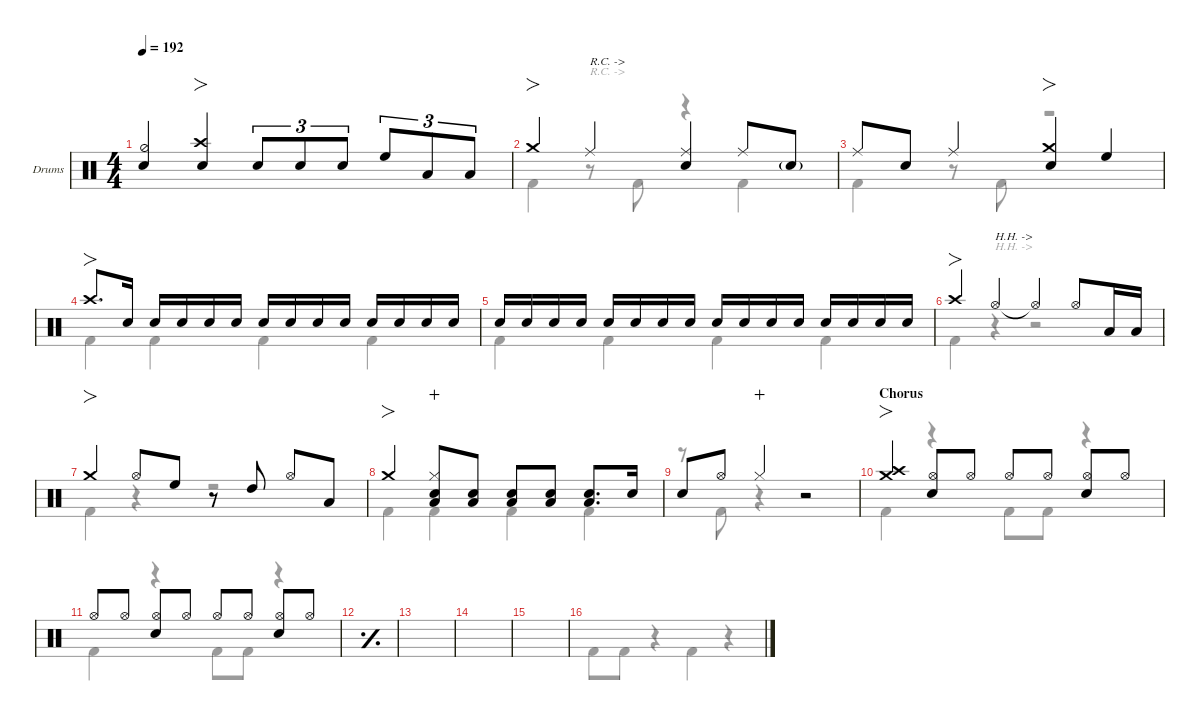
\defaultSystemsLayout 4
\hideDynamics
\bracketExtendMode nobrackets
\firstSystemTrackNameOrientation horizontal
\track ("Drums" "Drums") {defaultSystemsLayout 4 instrument percussion}
\staff {score}
\articulation defaults
\voice
\ts (4 4)
\tempo 192
\clef neutral
\scale
0.244461
\ks c
("Hi-Hat (half)" "Snare (hit) 2").4{dy f beam Up} ("Snare (hit) 2" "Crash high (hit)").4{fo beam Up} "Snare (hit) 2".8{tu (3 2) beam Up} "Snare (hit) 2".8{tu (3 2) dy mf beam Up} "Snare (hit) 2".8{tu (3 2) beam Up} "High Floor Tom (hit)".8{tu (3 2) dy f beam Up} "Low Tom (hit)".8{tu (3 2) beam Up} "Low Tom (hit)".8{tu (3 2) beam Up} |
\scale
0.244461 "Crash medium (hit)".4{fo beam Up} "Ride (middle)".4{txt "R.C. ->" beam Up} ("Snare (hit) 2" "Ride (middle)").4{beam Up} "Ride (middle)".8{beam Up} "Snare (hit) 2"{g}.8{dy mf beam Up} |
\scale
0.244461 "Ride (middle)".8{dy f beam Up} "Snare (hit) 2".8{beam Up} "Ride (middle)".4{beam Up} ("Crash medium (hit)" "Snare (hit) 2").4{fo beam Up} "High Floor Tom (hit)".4{beam Up} |
\scale
0.511079 "Crash high (hit)".8{fo d beam Up} "Snare (hit) 2".16{dy mf beam Up beam split} "Snare (hit) 2".16{dy f beam Up} "Snare (hit) 2".16{dy mp beam Up} "Snare (hit) 2".16{dy mf beam Up} "Snare (hit) 2".16{dy mp beam Up} "Snare (hit) 2".16{dy f beam Up} "Snare (hit) 2".16{dy mp beam Up} "Snare (hit) 2".16{dy mf beam Up} "Snare (hit) 2".16{dy mp beam Up beam split} "Snare (hit) 2".16{dy f beam Up} "Snare (hit) 2".16{dy mp beam Up} "Snare (hit) 2".16{dy mf beam Up} "Snare (hit) 2".16{dy mp beam Up} |
\scale
0.488921 "Snare (hit) 2".16{dy f beam Up} "Snare (hit) 2".16{dy mp beam Up} "Snare (hit) 2".16{dy mf beam Up} "Snare (hit) 2".16{dy mp beam Up beam split} "Snare (hit) 2".16{dy f beam Up} "Snare (hit) 2".16{dy mp beam Up} "Snare (hit) 2".16{dy mf beam Up} "Snare (hit) 2".16{dy mp beam Up} "Snare (hit) 2".16{dy f beam Up} "Snare (hit) 2".16{dy mp beam Up} "Snare (hit) 2".16{dy mf beam Up} "Snare (hit) 2".16{dy mp beam Up beam split} "Snare (hit) 2".16{dy f beam Up} "Snare (hit) 2".16{dy mp beam Up} "Snare (hit) 2".16{dy mf beam Up} "Snare (hit) 2".16{dy mp beam Up} |
\scale
0.266618 "Crash high (hit)".4{fo dy f beam Up} "Hi-Hat (open)".4{txt "H.H. ->" beam Up} "Hi-Hat (open)"{t}.4{beam Up} "Hi-Hat (open)".8{beam Up} "Low Tom (hit)".16{beam Up} "Low Tom (hit)".16{beam Up} |
\scale
0.244461 "Crash medium (hit)".4{fo beam Up} "Hi-Hat (open)".8{beam Up} "High Floor Tom (hit)".8{beam Up} r.8{beam Up} "High Tom (hit)".8{beam Up} "Hi-Hat (open)".8{beam Up} "Low Tom (hit)".8{beam Up} |
\scale
0.244461 "Crash medium (hit)".4{fo beam Up} ("Hi-Hat (closed)" "Snare (hit) 2" "Low Tom (hit)").8{wahc beam Up} ("Snare (hit) 2" "Low Tom (hit)").8{beam Up} ("Snare (hit) 2" "Low Tom (hit)").8{beam Up} ("Snare (hit) 2" "Low Tom (hit)").8{beam Up beam split} ("Snare (hit) 2" "Low Tom (hit)").8{d beam Up} "Snare (hit) 2".16{beam Up} |
\scale
0.244461 "Snare (hit) 2".8{beam Up} "Hi-Hat (open)".8{beam Up} "Hi-Hat (closed)".4{dy mp wahc beam Up} r.2{beam Up} |
\section ("" "Chorus")
\scale
0.267605 ("Crash high (hit)" "Crash medium (hit)").4{fo dy f beam Up} ("Hi-Hat (open)" "Snare (hit) 2").8{beam Up} "Hi-Hat (open)".8{dy mf beam Up} "Hi-Hat (open)".8{dy f beam Up} "Hi-Hat (open)".8{dy mf beam Up} ("Hi-Hat (open)" "Snare (hit) 2").8{dy f beam Up} "Hi-Hat (open)".8{dy mf beam Up} |
\scale
0.243474 "Hi-Hat (open)".8{dy f beam Up} "Hi-Hat (open)".8{dy mf beam Up} ("Hi-Hat (open)" "Snare (hit) 2").8{dy f beam Up} "Hi-Hat (open)".8{dy mf beam Up} "Hi-Hat (open)".8{dy f beam Up} "Hi-Hat (open)".8{dy mf beam Up} ("Hi-Hat (open)" "Snare (hit) 2").8{dy f beam Up} "Hi-Hat (open)".8{dy mf beam Up} |
\simile simple
\scale
0.244789 |
\scale
0.244132 |
\scale
0.267605 |
\scale
0.244132 |
\scale
0.244132
\voice
\clef neutral
\ottava regular
\simile none
\scale
0.244461
\ks c "Kick (hit) 2".8{dy f beam Down} "Kick (hit) 2".8{beam Down}
r.4{beam Down} "Kick (hit) 2".4{beam Down} r.4{beam Down} |
\scale
0.244461 "Kick (hit) 2".4{beam Down} r.8{txt "R.C. ->" beam Down} "Kick (hit) 2".8{beam Down} r.4{beam Down} "Kick (hit) 2".4{beam Down} |
\scale
0.244461 "Kick (hit) 2".4{beam Down} r.8{beam Down} "Kick (hit) 2".8{beam Down} r.2{beam Down} |
\scale
0.511079 "Kick (hit) 2".4{beam Down} "Kick (hit) 2".4{beam Down} "Kick (hit) 2".4{beam Down} "Kick (hit) 2".4{beam Down} |
\scale
0.488921 "Kick (hit) 2".4{beam Down} "Kick (hit) 2".4{beam Down} "Kick (hit) 2".4{beam Down} "Kick (hit) 2".4{beam Down} |
\scale
0.266618 "Kick (hit) 2".4{beam Down} r.4{txt "H.H. ->" beam Down} r.2{beam Down} |
\scale
0.244461 "Kick (hit) 2".4{beam Down} r.4{beam Down} r.2{beam Down} |
\scale
0.244461 "Kick (hit) 2".4{beam Down} "Kick (hit) 2".4{beam Down} "Kick (hit) 2".4{beam Down} "Kick (hit) 2".4{beam Down} |
\scale
0.244461 r.8{beam Down} "Kick (hit) 2".8{beam Down} r.4{beam Down} r.2{beam Down} |
\scale
0.267605 "Kick (hit) 2".4{beam Down} r.4{beam Down} "Kick (hit) 2".8{beam Down} "Kick (hit) 2".8{beam Down} r.4{beam Down} |
\scale
0.243474 "Kick (hit) 2".4{beam Down} r.4{beam Down} "Kick (hit) 2".8{beam Down} "Kick (hit) 2".8{beam Down} r.4{beam Down} |
\simile simple
\scale
0.244789 |
\scale
0.244132 |
\scale
0.267605 |
\scale
0.244132 |
\scale
0.244132
